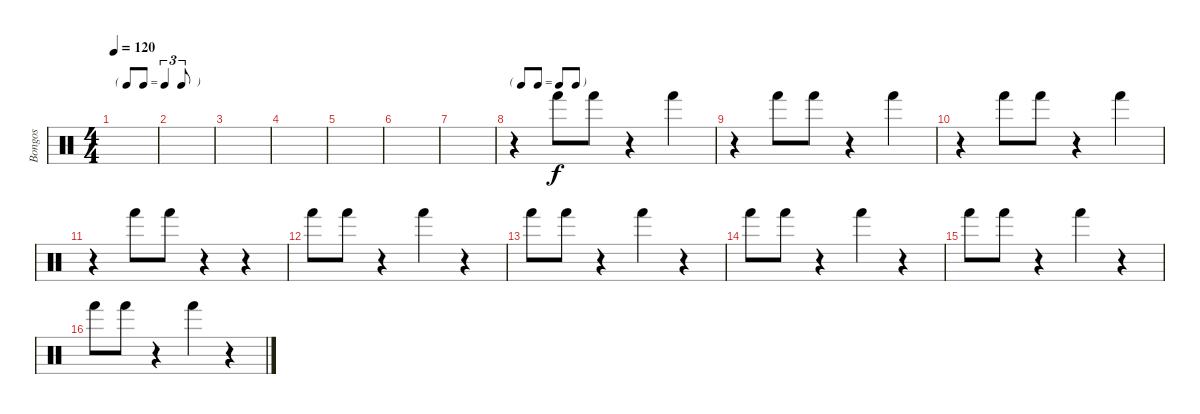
\track ("Bongos" "Bongos") {instrument percussion}
\staff {score}
\articulation defaults
\ts (4 4)
\tf triplet8th
\tempo 120
\clef neutral
\ks c
|
|
|
|
|
|
|
\tf none
r.4 "Hand (hit)".8 "Hand (hit)".8 r.4 "Hand (hit)".4 |
r.4 "Hand (hit)".8 "Hand (hit)".8 r.4 "Hand (hit)".4 |
r.4 "Hand (hit)".8 "Hand (hit)".8 r.4 "Hand (hit)".4 |
r.4 "Hand (hit)".8 "Hand (hit)".8 r.4 r.4 |
"Hand (hit)".8 "Hand (hit)".8 r.4 "Hand (hit)".4 r.4 |
"Hand (hit)".8 "Hand (hit)".8 r.4 "Hand (hit)".4 r.4 |
"Hand (hit)".8 "Hand (hit)".8 r.4 "Hand (hit)".4 r.4 |
"Hand (hit)".8 "Hand (hit)".8 r.4 "Hand (hit)".4 r.4 |
"Hand (hit)".8 "Hand (hit)".8 r.4 "Hand (hit)".4 r.4
